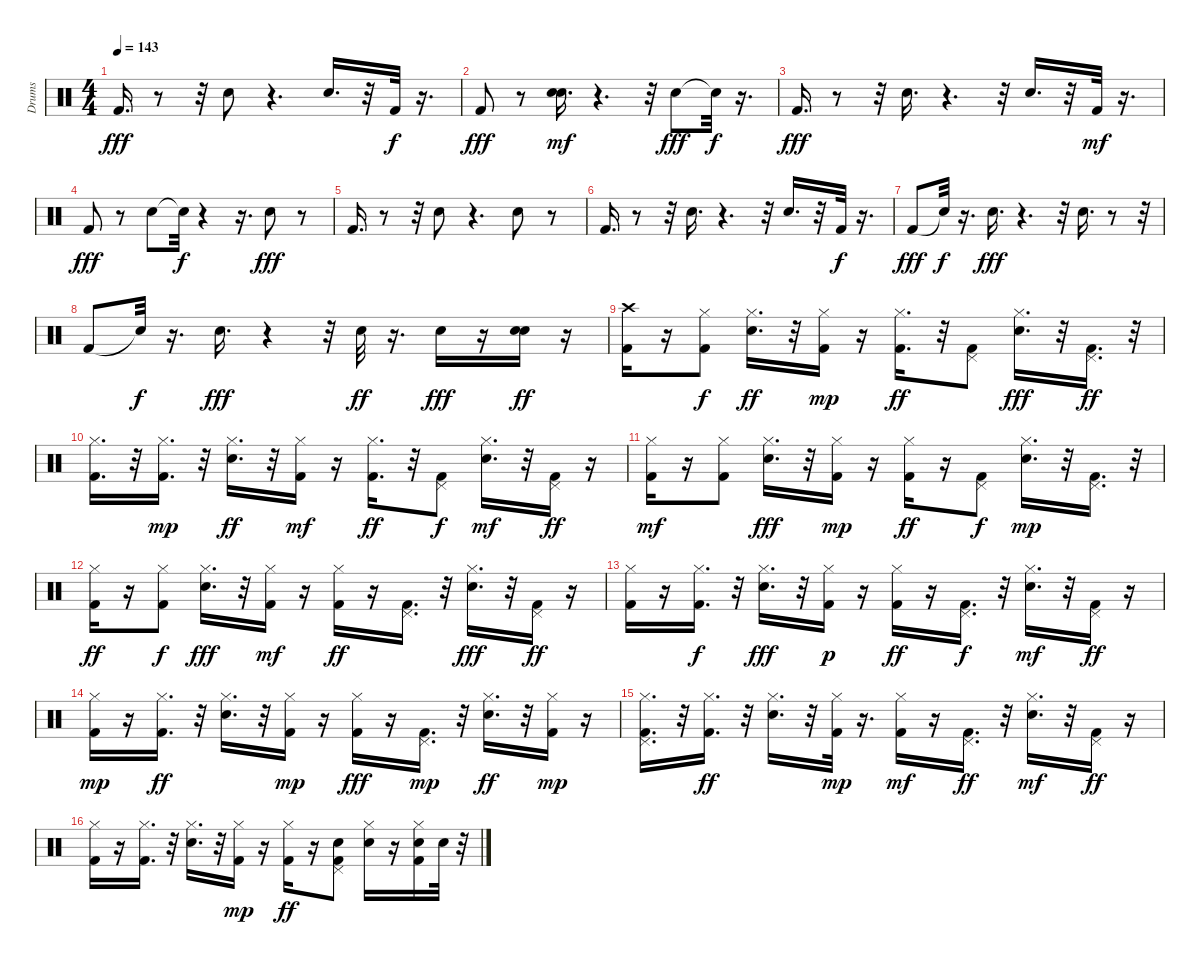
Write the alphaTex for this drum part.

\track ("Drums               " "Drums     ") {instrument percussion}
\staff {score}
\articulation defaults
\ts (4 4)
\tempo 143
\clef neutral
\ks c "Kick (hit) 2".16{d dy fff}
r.8 r.32 "Snare (hit) 2".8 r.4{d} "Snare (hit) 2".16{d} r.32 "Kick (hit) 2".32{dy f} r.16{d} |
"Kick (hit) 2".8{dy fff} r.8 ("Snare (hit) 2" "Electric Snare (hit)").16{d dy mf} r.4{d} r.32 "Snare (hit) 2".8{dy fff} "Snare (hit)"{t}.32{dy f} r.16{d} |
"Kick (hit) 2".16{d dy fff} r.8 r.32 "Snare (hit) 2".16{d} r.4{d} r.32 "Snare (hit) 2".16{d} r.32 "Kick (hit) 2".32{dy mf} r.16{d} |
"Kick (hit) 2".8{dy fff} r.8 "Snare (hit) 2".8 "Snare (hit)"{t}.32{dy f} r.4 r.16{d} "Snare (hit) 2".8{dy fff} r.8 |
"Kick (hit) 2".16{d} r.8 r.32 "Snare (hit) 2".8 r.4{d} "Snare (hit) 2".8 r.8 |
"Kick (hit) 2".16{d} r.8 r.32 "Snare (hit) 2".16{d} r.4{d} r.32 "Snare (hit) 2".16{d} r.32 "Kick (hit) 2".32{dy f} r.16{d} |
"Kick (hit) 2".8{dy fff} "Snare (hit)"{t}.32{dy f} r.16{d} "Snare (hit) 2".16{d dy fff} r.4{d} r.32 "Snare (hit) 2".16{d} r.8 r.32 |
"Kick (hit) 2".8 "Snare (hit)"{t}.32{dy f} r.16{d} "Snare (hit) 2".16{d dy fff} r.4 r.32 "Snare (hit) 2".32{dy ff} r.16{d} "Snare (hit) 2".16{dy fff} r.16 ("Snare (hit) 2" "Electric Snare (hit)").16{dy ff} r.16 |
("Kick (hit) 2" "Crash high (hit)").16 r.16 ("Kick (hit) 2" "Hi-Hat (closed)").8{dy f} ("Snare (hit) 2" "Hi-Hat (closed)").16{d dy ff} r.32 ("Kick (hit) 2" "Hi-Hat (closed)").16{dy mp} r.16 ("Kick (hit) 2" "Hi-Hat (closed)").16{d dy ff} r.32 ("Kick (hit) 2" "Pedal Hi-Hat (hit)").8 ("Snare (hit) 2" "Hi-Hat (closed)").16{d dy fff} r.32 ("Kick (hit) 2" "Pedal Hi-Hat (hit)").16{d dy ff} r.32 |
("Kick (hit) 2" "Hi-Hat (closed)").16{d} r.32 ("Kick (hit) 2" "Hi-Hat (closed)").16{d dy mp} r.32 ("Snare (hit) 2" "Hi-Hat (closed)").16{d dy ff} r.32 ("Kick (hit) 2" "Hi-Hat (closed)").16{dy mf} r.16 ("Kick (hit) 2" "Hi-Hat (closed)").16{d dy ff} r.32 ("Kick (hit) 2" "Pedal Hi-Hat (hit)").8{dy f} ("Snare (hit) 2" "Hi-Hat (closed)").16{d dy mf} r.32 ("Kick (hit) 2" "Pedal Hi-Hat (hit)").16{dy ff} r.16 |
("Kick (hit) 2" "Hi-Hat (closed)").16{dy mf} r.16 ("Kick (hit) 2" "Hi-Hat (closed)").8 ("Snare (hit) 2" "Hi-Hat (closed)").16{d dy fff} r.32 ("Kick (hit) 2" "Hi-Hat (closed)").16{dy mp} r.16 ("Kick (hit) 2" "Hi-Hat (closed)").16{dy ff} r.16 ("Kick (hit) 2" "Pedal Hi-Hat (hit)").8{dy f} ("Snare (hit) 2" "Hi-Hat (closed)").16{d dy mp} r.32 ("Kick (hit) 2" "Pedal Hi-Hat (hit)").16{d} r.32 |
("Kick (hit) 2" "Hi-Hat (closed)").16{dy ff} r.16 ("Kick (hit) 2" "Hi-Hat (closed)").8{dy f} ("Snare (hit) 2" "Hi-Hat (closed)").16{d dy fff} r.32 ("Kick (hit) 2" "Hi-Hat (closed)").16{dy mf} r.16 ("Kick (hit) 2" "Hi-Hat (closed)").16{dy ff} r.16 ("Kick (hit) 2" "Pedal Hi-Hat (hit)").16{d} r.32 ("Snare (hit) 2" "Hi-Hat (closed)").16{d dy fff} r.32 ("Kick (hit) 2" "Pedal Hi-Hat (hit)").16{dy ff} r.16 |
("Kick (hit) 2" "Hi-Hat (closed)").16 r.16 ("Kick (hit) 2" "Hi-Hat (closed)").16{d dy f} r.32 ("Snare (hit) 2" "Hi-Hat (closed)").16{d dy fff} r.32 ("Kick (hit) 2" "Hi-Hat (closed)").16{dy p} r.16 ("Kick (hit) 2" "Hi-Hat (closed)").16{dy ff} r.16 ("Kick (hit) 2" "Pedal Hi-Hat (hit)").16{d dy f} r.32 ("Snare (hit) 2" "Hi-Hat (closed)").16{d dy mf} r.32 ("Kick (hit) 2" "Pedal Hi-Hat (hit)").16{dy ff} r.16 |
("Kick (hit) 2" "Hi-Hat (closed)").16{dy mp} r.16 ("Kick (hit) 2" "Hi-Hat (closed)").16{d dy ff} r.32 ("Snare (hit) 2" "Hi-Hat (closed)").16{d} r.32 ("Kick (hit) 2" "Hi-Hat (closed)").16{dy mp} r.16 ("Kick (hit) 2" "Hi-Hat (closed)").16{dy fff} r.16 ("Kick (hit) 2" "Pedal Hi-Hat (hit)").16{d dy mp} r.32 ("Snare (hit) 2" "Hi-Hat (closed)").16{d dy ff} r.32 ("Kick (hit) 2" "Hi-Hat (closed)").16{dy mp} r.16 |
("Kick (hit) 2" "Hi-Hat (closed)" "Pedal Hi-Hat (hit)").16{d} r.32 ("Kick (hit) 2" "Hi-Hat (closed)").16{d dy ff} r.32 ("Snare (hit) 2" "Hi-Hat (closed)").16{d} r.32 ("Kick (hit) 2" "Hi-Hat (closed)").32{dy mp} r.16{d} ("Kick (hit) 2" "Hi-Hat (closed)").16{dy mf} r.16 ("Kick (hit) 2" "Pedal Hi-Hat (hit)").16{d dy ff} r.32 ("Snare (hit) 2" "Hi-Hat (closed)").16{d dy mf} r.32 ("Kick (hit) 2" "Pedal Hi-Hat (hit)").16{dy ff} r.16 |
("Kick (hit) 2" "Hi-Hat (closed)").16 r.16 ("Kick (hit) 2" "Hi-Hat (closed)").16{d} r.32 ("Snare (hit) 2" "Hi-Hat (closed)").16{d} r.32 ("Kick (hit) 2" "Hi-Hat (closed)").16{dy mp} r.16 ("Kick (hit) 2" "Hi-Hat (closed)").16{dy ff} r.16 ("Kick (hit) 2" "Snare (hit) 2" "Pedal Hi-Hat (hit)").8 ("Snare (hit) 2" "Hi-Hat (closed)").16 r.16 ("Kick (hit) 2" "Snare (hit) 2" "Hi-Hat (closed)").16 "Snare (hit) 2".32 r.32
